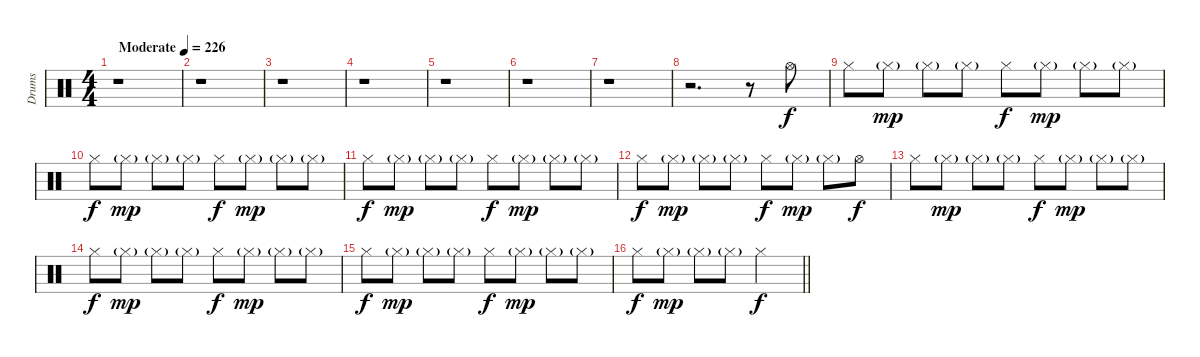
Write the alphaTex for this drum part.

\track ("Drums" "Drums") {instrument percussion}
\staff {score}
\articulation defaults
\ts (4 4)
\tempo (226 "Moderate")
\clef neutral
\ks c
r.1{dy f} |
r.1 |
r.1 |
r.1 |
r.1 |
r.1 |
r.1 |
r.2{d} r.8 "Hi-Hat (open)".8 |
"Hi-Hat (closed)".8 "Hi-Hat (closed)"{g}.8{dy mp} "Hi-Hat (closed)"{g}.8 "Hi-Hat (closed)"{g}.8 "Hi-Hat (closed)".8{dy f} "Hi-Hat (closed)"{g}.8{dy mp} "Hi-Hat (closed)"{g}.8 "Hi-Hat (closed)"{g}.8 |
"Hi-Hat (closed)".8{dy f} "Hi-Hat (closed)"{g}.8{dy mp} "Hi-Hat (closed)"{g}.8 "Hi-Hat (closed)"{g}.8 "Hi-Hat (closed)".8{dy f} "Hi-Hat (closed)"{g}.8{dy mp} "Hi-Hat (closed)"{g}.8 "Hi-Hat (closed)"{g}.8 |
"Hi-Hat (closed)".8{dy f} "Hi-Hat (closed)"{g}.8{dy mp} "Hi-Hat (closed)"{g}.8 "Hi-Hat (closed)"{g}.8 "Hi-Hat (closed)".8{dy f} "Hi-Hat (closed)"{g}.8{dy mp} "Hi-Hat (closed)"{g}.8 "Hi-Hat (closed)"{g}.8 |
"Hi-Hat (closed)".8{dy f} "Hi-Hat (closed)"{g}.8{dy mp} "Hi-Hat (closed)"{g}.8 "Hi-Hat (closed)"{g}.8 "Hi-Hat (closed)".8{dy f} "Hi-Hat (closed)"{g}.8{dy mp} "Hi-Hat (closed)"{g}.8 "Hi-Hat (open)".8{dy f} |
"Hi-Hat (closed)".8 "Hi-Hat (closed)"{g}.8{dy mp} "Hi-Hat (closed)"{g}.8 "Hi-Hat (closed)"{g}.8 "Hi-Hat (closed)".8{dy f} "Hi-Hat (closed)"{g}.8{dy mp} "Hi-Hat (closed)"{g}.8 "Hi-Hat (closed)"{g}.8 |
"Hi-Hat (closed)".8{dy f} "Hi-Hat (closed)"{g}.8{dy mp} "Hi-Hat (closed)"{g}.8 "Hi-Hat (closed)"{g}.8 "Hi-Hat (closed)".8{dy f} "Hi-Hat (closed)"{g}.8{dy mp} "Hi-Hat (closed)"{g}.8 "Hi-Hat (closed)"{g}.8 |
"Hi-Hat (closed)".8{dy f} "Hi-Hat (closed)"{g}.8{dy mp} "Hi-Hat (closed)"{g}.8 "Hi-Hat (closed)"{g}.8 "Hi-Hat (closed)".8{dy f} "Hi-Hat (closed)"{g}.8{dy mp} "Hi-Hat (closed)"{g}.8 "Hi-Hat (closed)"{g}.8 |
\barLineRight lightlight "Hi-Hat (closed)".8{dy f} "Hi-Hat (closed)"{g}.8{dy mp} "Hi-Hat (closed)"{g}.8 "Hi-Hat (closed)"{g}.8 "Hi-Hat (closed)".2{dy f}
